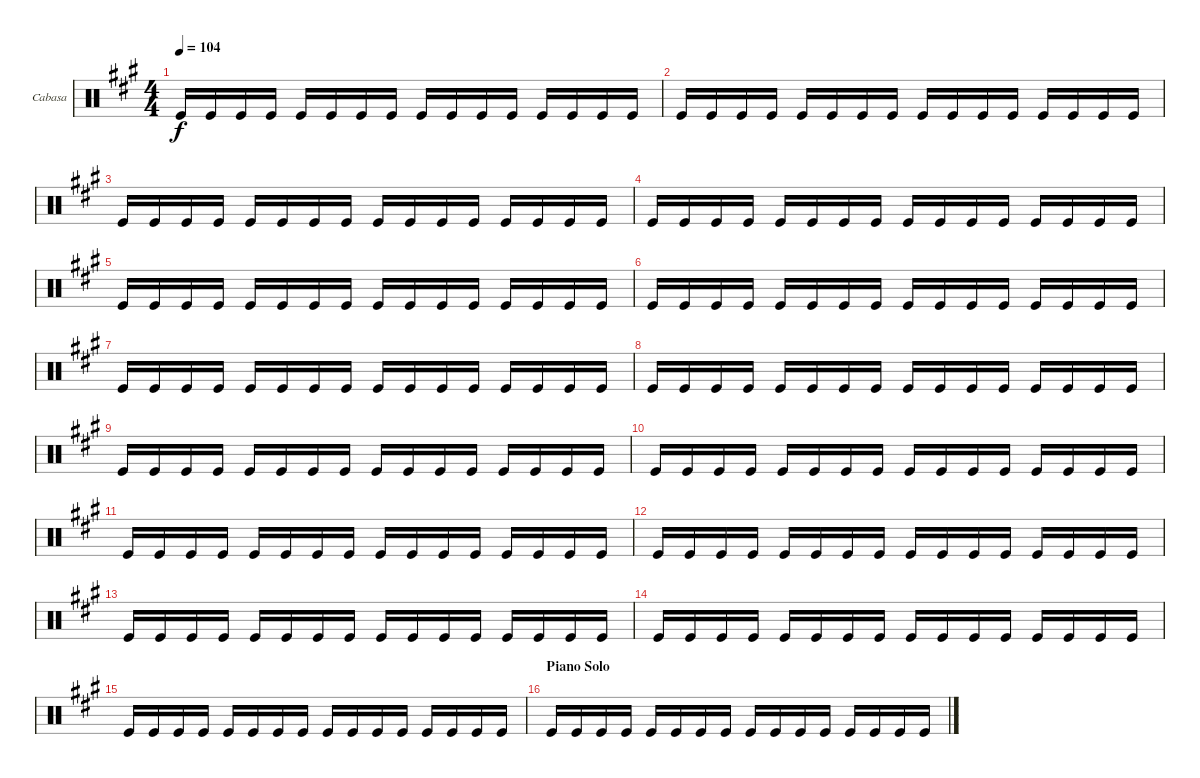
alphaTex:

\bracketExtendMode groupsimilarinstruments
\firstSystemTrackNameOrientation horizontal
\otherSystemsTrackNameOrientation horizontal
\track ("Cabasa" "Cabasa") {instrument percussion}
\staff {score}
\articulation defaults
\ts (4 4)
\tempo 104
\clef neutral
\ks a "Kick (hit)".16{dy f} "Kick (hit)".16 "Kick (hit)".16 "Kick (hit)".16 "Kick (hit)".16 "Kick (hit)".16 "Kick (hit)".16 "Kick (hit)".16 "Kick (hit)".16 "Kick (hit)".16 "Kick (hit)".16 "Kick (hit)".16 "Kick (hit)".16 "Kick (hit)".16 "Kick (hit)".16 "Kick (hit)".16
|
"Kick (hit)".16 "Kick (hit)".16 "Kick (hit)".16 "Kick (hit)".16 "Kick (hit)".16 "Kick (hit)".16 "Kick (hit)".16 "Kick (hit)".16 "Kick (hit)".16 "Kick (hit)".16 "Kick (hit)".16 "Kick (hit)".16 "Kick (hit)".16 "Kick (hit)".16 "Kick (hit)".16 "Kick (hit)".16 |
"Kick (hit)".16 "Kick (hit)".16 "Kick (hit)".16 "Kick (hit)".16 "Kick (hit)".16 "Kick (hit)".16 "Kick (hit)".16 "Kick (hit)".16 "Kick (hit)".16 "Kick (hit)".16 "Kick (hit)".16 "Kick (hit)".16 "Kick (hit)".16 "Kick (hit)".16 "Kick (hit)".16 "Kick (hit)".16 |
"Kick (hit)".16 "Kick (hit)".16 "Kick (hit)".16 "Kick (hit)".16 "Kick (hit)".16 "Kick (hit)".16 "Kick (hit)".16 "Kick (hit)".16 "Kick (hit)".16 "Kick (hit)".16 "Kick (hit)".16 "Kick (hit)".16 "Kick (hit)".16 "Kick (hit)".16 "Kick (hit)".16 "Kick (hit)".16 |
"Kick (hit)".16 "Kick (hit)".16 "Kick (hit)".16 "Kick (hit)".16 "Kick (hit)".16 "Kick (hit)".16 "Kick (hit)".16 "Kick (hit)".16 "Kick (hit)".16 "Kick (hit)".16 "Kick (hit)".16 "Kick (hit)".16 "Kick (hit)".16 "Kick (hit)".16 "Kick (hit)".16 "Kick (hit)".16 |
"Kick (hit)".16 "Kick (hit)".16 "Kick (hit)".16 "Kick (hit)".16 "Kick (hit)".16 "Kick (hit)".16 "Kick (hit)".16 "Kick (hit)".16 "Kick (hit)".16 "Kick (hit)".16 "Kick (hit)".16 "Kick (hit)".16 "Kick (hit)".16 "Kick (hit)".16 "Kick (hit)".16 "Kick (hit)".16 |
"Kick (hit)".16 "Kick (hit)".16 "Kick (hit)".16 "Kick (hit)".16 "Kick (hit)".16 "Kick (hit)".16 "Kick (hit)".16 "Kick (hit)".16 "Kick (hit)".16 "Kick (hit)".16 "Kick (hit)".16 "Kick (hit)".16 "Kick (hit)".16 "Kick (hit)".16 "Kick (hit)".16 "Kick (hit)".16 |
"Kick (hit)".16 "Kick (hit)".16 "Kick (hit)".16 "Kick (hit)".16 "Kick (hit)".16 "Kick (hit)".16 "Kick (hit)".16 "Kick (hit)".16 "Kick (hit)".16 "Kick (hit)".16 "Kick (hit)".16 "Kick (hit)".16 "Kick (hit)".16 "Kick (hit)".16 "Kick (hit)".16 "Kick (hit)".16 |
"Kick (hit)".16 "Kick (hit)".16 "Kick (hit)".16 "Kick (hit)".16 "Kick (hit)".16 "Kick (hit)".16 "Kick (hit)".16 "Kick (hit)".16 "Kick (hit)".16 "Kick (hit)".16 "Kick (hit)".16 "Kick (hit)".16 "Kick (hit)".16 "Kick (hit)".16 "Kick (hit)".16 "Kick (hit)".16 |
"Kick (hit)".16 "Kick (hit)".16 "Kick (hit)".16 "Kick (hit)".16 "Kick (hit)".16 "Kick (hit)".16 "Kick (hit)".16 "Kick (hit)".16 "Kick (hit)".16 "Kick (hit)".16 "Kick (hit)".16 "Kick (hit)".16 "Kick (hit)".16 "Kick (hit)".16 "Kick (hit)".16 "Kick (hit)".16 |
"Kick (hit)".16 "Kick (hit)".16 "Kick (hit)".16 "Kick (hit)".16 "Kick (hit)".16 "Kick (hit)".16 "Kick (hit)".16 "Kick (hit)".16 "Kick (hit)".16 "Kick (hit)".16 "Kick (hit)".16 "Kick (hit)".16 "Kick (hit)".16 "Kick (hit)".16 "Kick (hit)".16 "Kick (hit)".16 |
"Kick (hit)".16 "Kick (hit)".16 "Kick (hit)".16 "Kick (hit)".16 "Kick (hit)".16 "Kick (hit)".16 "Kick (hit)".16 "Kick (hit)".16 "Kick (hit)".16 "Kick (hit)".16 "Kick (hit)".16 "Kick (hit)".16 "Kick (hit)".16 "Kick (hit)".16 "Kick (hit)".16 "Kick (hit)".16 |
"Kick (hit)".16 "Kick (hit)".16 "Kick (hit)".16 "Kick (hit)".16 "Kick (hit)".16 "Kick (hit)".16 "Kick (hit)".16 "Kick (hit)".16 "Kick (hit)".16 "Kick (hit)".16 "Kick (hit)".16 "Kick (hit)".16 "Kick (hit)".16 "Kick (hit)".16 "Kick (hit)".16 "Kick (hit)".16 |
"Kick (hit)".16 "Kick (hit)".16 "Kick (hit)".16 "Kick (hit)".16 "Kick (hit)".16 "Kick (hit)".16 "Kick (hit)".16 "Kick (hit)".16 "Kick (hit)".16 "Kick (hit)".16 "Kick (hit)".16 "Kick (hit)".16 "Kick (hit)".16 "Kick (hit)".16 "Kick (hit)".16 "Kick (hit)".16 |
"Kick (hit)".16 "Kick (hit)".16 "Kick (hit)".16 "Kick (hit)".16 "Kick (hit)".16 "Kick (hit)".16 "Kick (hit)".16 "Kick (hit)".16 "Kick (hit)".16 "Kick (hit)".16 "Kick (hit)".16 "Kick (hit)".16 "Kick (hit)".16 "Kick (hit)".16 "Kick (hit)".16 "Kick (hit)".16 |
\section ("" "Piano Solo")
"Kick (hit)".16 "Kick (hit)".16 "Kick (hit)".16 "Kick (hit)".16 "Kick (hit)".16 "Kick (hit)".16 "Kick (hit)".16 "Kick (hit)".16 "Kick (hit)".16 "Kick (hit)".16 "Kick (hit)".16 "Kick (hit)".16 "Kick (hit)".16 "Kick (hit)".16 "Kick (hit)".16 "Kick (hit)".16
